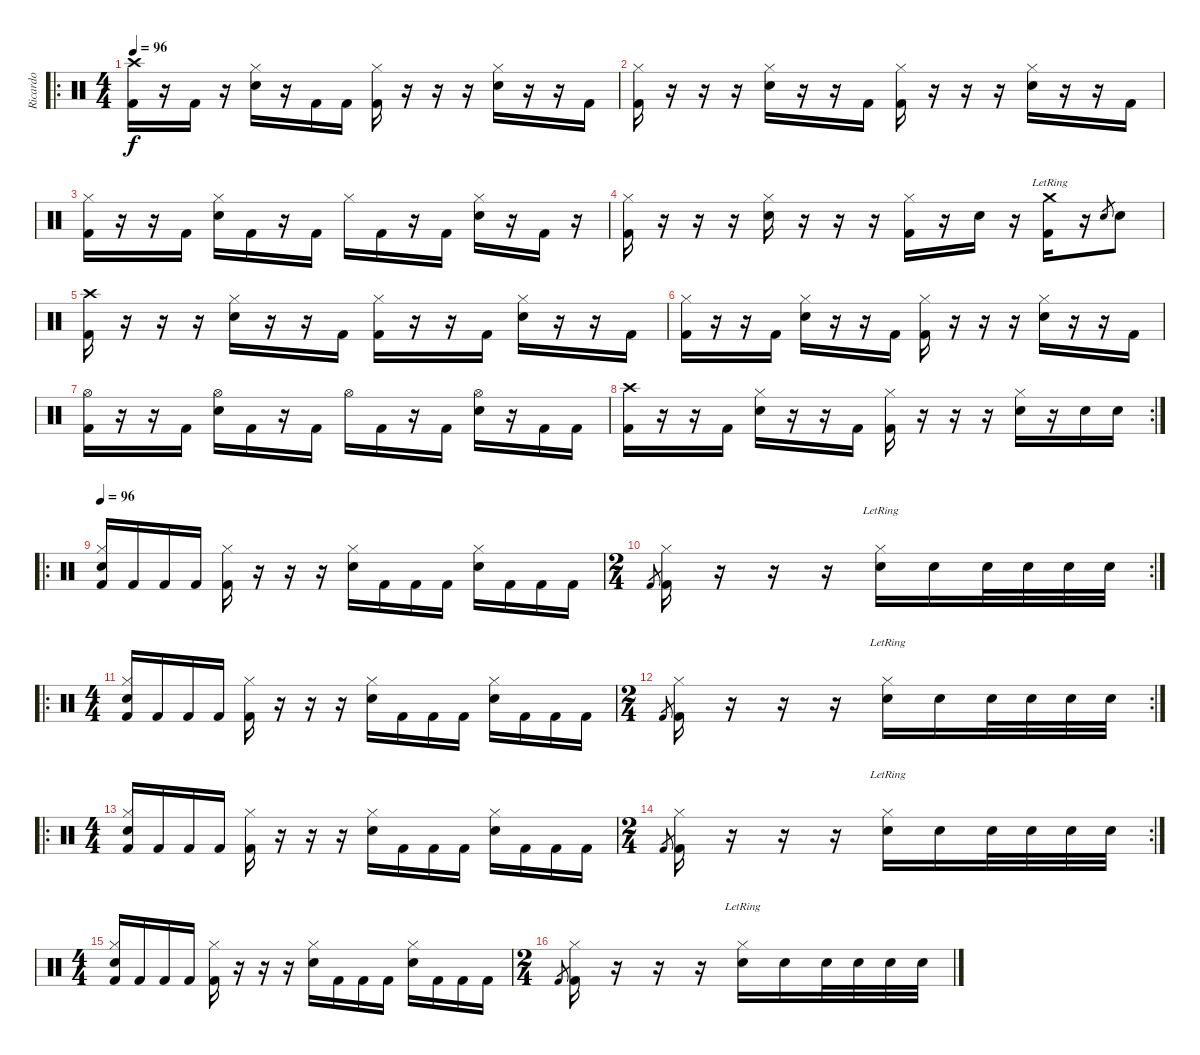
\track ("Ricardo" "Ricardo") {instrument percussion}
\staff {score}
\articulation defaults
\ro
\ts (4 4)
\tempo 96
\clef neutral
\ks c
("Crash high (hit)" "Kick (hit) 2").16{dy f} r.16 "Kick (hit) 2".16 r.16 ("Hi-Hat (closed)" "Snare (hit) 2").16 r.16 "Kick (hit) 2".16 "Kick (hit) 2".16 ("Hi-Hat (closed)" "Kick (hit) 2").16 r.16 r.16 r.16 ("Hi-Hat (closed)" "Snare (hit) 2").16 r.16 r.16 "Kick (hit) 2".16 |
("Hi-Hat (closed)" "Kick (hit) 2").16 r.16 r.16 r.16 ("Hi-Hat (closed)" "Snare (hit) 2").16 r.16 r.16 "Kick (hit) 2".16 ("Hi-Hat (closed)" "Kick (hit) 2").16 r.16 r.16 r.16 ("Hi-Hat (closed)" "Snare (hit) 2").16 r.16 r.16 "Kick (hit) 2".16 |
("Hi-Hat (closed)" "Kick (hit) 2").16 r.16 r.16 "Kick (hit) 2".16 ("Hi-Hat (closed)" "Snare (hit) 2").16 "Kick (hit) 2".16 r.16 "Kick (hit) 2".16 "Hi-Hat (closed)".16 "Kick (hit) 2".16 r.16 "Kick (hit) 2".16 ("Hi-Hat (closed)" "Snare (hit) 2").16 r.16 "Kick (hit) 2".16 r.16 |
("Hi-Hat (closed)" "Kick (hit) 2").16 r.16 r.16 r.16 ("Hi-Hat (closed)" "Snare (hit) 2").16 r.16 r.16 r.16 ("Hi-Hat (closed)" "Kick (hit) 2").16 r.16 "Snare (hit) 2".16 r.16 ("Crash medium (hit)"{lr} "Kick (hit) 2").16 r.16 "Snare (hit) 2".8{gr} "Snare (hit) 2".8 |
("Crash high (hit)" "Kick (hit) 2").16 r.16 r.16 r.16 ("Hi-Hat (closed)" "Snare (hit) 2").16 r.16 r.16 "Kick (hit) 2".16 ("Hi-Hat (closed)" "Kick (hit) 2").16 r.16 r.16 "Kick (hit) 2".16 ("Hi-Hat (closed)" "Snare (hit) 2").16 r.16 r.16 "Kick (hit) 2".16 |
("Hi-Hat (closed)" "Kick (hit) 2").16 r.16 r.16 "Kick (hit) 2".16 ("Hi-Hat (closed)" "Snare (hit) 2").16 r.16 r.16 "Kick (hit) 2".16 ("Hi-Hat (closed)" "Kick (hit) 2").16 r.16 r.16 r.16 ("Hi-Hat (closed)" "Snare (hit) 2").16 r.16 r.16 "Kick (hit) 2".16 |
("Hi-Hat (open)" "Kick (hit) 2").16 r.16 r.16 "Kick (hit) 2".16 ("Hi-Hat (open)" "Snare (hit) 2").16 "Kick (hit) 2".16 r.16 "Kick (hit) 2".16 "Hi-Hat (open)".16 "Kick (hit) 2".16 r.16 "Kick (hit) 2".16 ("Hi-Hat (open)" "Snare (hit) 2").16 r.16 "Kick (hit) 2".16 "Kick (hit) 2".16 |
\rc 2
("Crash high (hit)" "Kick (hit) 2").16 r.16 r.16 "Kick (hit) 2".16 ("Hi-Hat (closed)" "Snare (hit) 2").16 r.16 r.16 "Kick (hit) 2".16 ("Hi-Hat (closed)" "Kick (hit) 2").16 r.16 r.16 r.16 ("Hi-Hat (closed)" "Snare (hit) 2").16 r.16 "Snare (hit) 2".16 "Snare (hit) 2".16 |
\ro
\tempo 96
("Hi-Hat (closed)" "Snare (hit) 2" "Kick (hit) 2").16 "Kick (hit) 2".16 "Kick (hit) 2".16 "Kick (hit) 2".16 ("Hi-Hat (closed)" "Kick (hit) 2").16 r.16 r.16 r.16 ("Hi-Hat (closed)" "Snare (hit) 2").16 "Kick (hit) 2".16 "Kick (hit) 2".16 "Kick (hit) 2".16 ("Hi-Hat (closed)" "Snare (hit) 2").16 "Kick (hit) 2".16 "Kick (hit) 2".16 "Kick (hit) 2".16 |
\rc 2
\ts (2 4)
"Kick (hit) 2".8{gr} ("Hi-Hat (closed)" "Kick (hit) 2").16 r.16 r.16 r.16 ("Hi-Hat (closed)"{lr} "Snare (hit) 2").16 "Snare (hit) 2".16 "Snare (hit) 2".32 "Snare (hit) 2".32 "Snare (hit) 2".32 "Snare (hit) 2".32 |
\ro
\ts (4 4)
("Hi-Hat (closed)" "Snare (hit) 2" "Kick (hit) 2").16 "Kick (hit) 2".16 "Kick (hit) 2".16 "Kick (hit) 2".16 ("Hi-Hat (closed)" "Kick (hit) 2").16 r.16 r.16 r.16 ("Hi-Hat (closed)" "Snare (hit) 2").16 "Kick (hit) 2".16 "Kick (hit) 2".16 "Kick (hit) 2".16 ("Hi-Hat (closed)" "Snare (hit) 2").16 "Kick (hit) 2".16 "Kick (hit) 2".16 "Kick (hit) 2".16 |
\rc 2
\ts (2 4)
"Kick (hit) 2".8{gr} ("Hi-Hat (closed)" "Kick (hit) 2").16 r.16 r.16 r.16 ("Hi-Hat (closed)"{lr} "Snare (hit) 2").16 "Snare (hit) 2".16 "Snare (hit) 2".32 "Snare (hit) 2".32 "Snare (hit) 2".32 "Snare (hit) 2".32 |
\ro
\ts (4 4)
("Hi-Hat (closed)" "Snare (hit) 2" "Kick (hit) 2").16 "Kick (hit) 2".16 "Kick (hit) 2".16 "Kick (hit) 2".16 ("Hi-Hat (closed)" "Kick (hit) 2").16 r.16 r.16 r.16 ("Hi-Hat (closed)" "Snare (hit) 2").16 "Kick (hit) 2".16 "Kick (hit) 2".16 "Kick (hit) 2".16 ("Hi-Hat (closed)" "Snare (hit) 2").16 "Kick (hit) 2".16 "Kick (hit) 2".16 "Kick (hit) 2".16 |
\rc 2
\ts (2 4)
"Kick (hit) 2".8{gr} ("Hi-Hat (closed)" "Kick (hit) 2").16 r.16 r.16 r.16 ("Hi-Hat (closed)"{lr} "Snare (hit) 2").16 "Snare (hit) 2".16 "Snare (hit) 2".32 "Snare (hit) 2".32 "Snare (hit) 2".32 "Snare (hit) 2".32 |
\ts (4 4)
("Hi-Hat (closed)" "Snare (hit) 2" "Kick (hit) 2").16 "Kick (hit) 2".16 "Kick (hit) 2".16 "Kick (hit) 2".16 ("Hi-Hat (closed)" "Kick (hit) 2").16 r.16 r.16 r.16 ("Hi-Hat (closed)" "Snare (hit) 2").16 "Kick (hit) 2".16 "Kick (hit) 2".16 "Kick (hit) 2".16 ("Hi-Hat (closed)" "Snare (hit) 2").16 "Kick (hit) 2".16 "Kick (hit) 2".16 "Kick (hit) 2".16 |
\ts (2 4)
"Kick (hit) 2".8{gr} ("Hi-Hat (closed)" "Kick (hit) 2").16 r.16 r.16 r.16 ("Hi-Hat (closed)"{lr} "Snare (hit) 2").16 "Snare (hit) 2".16 "Snare (hit) 2".32 "Snare (hit) 2".32 "Snare (hit) 2".32 "Snare (hit) 2".32
